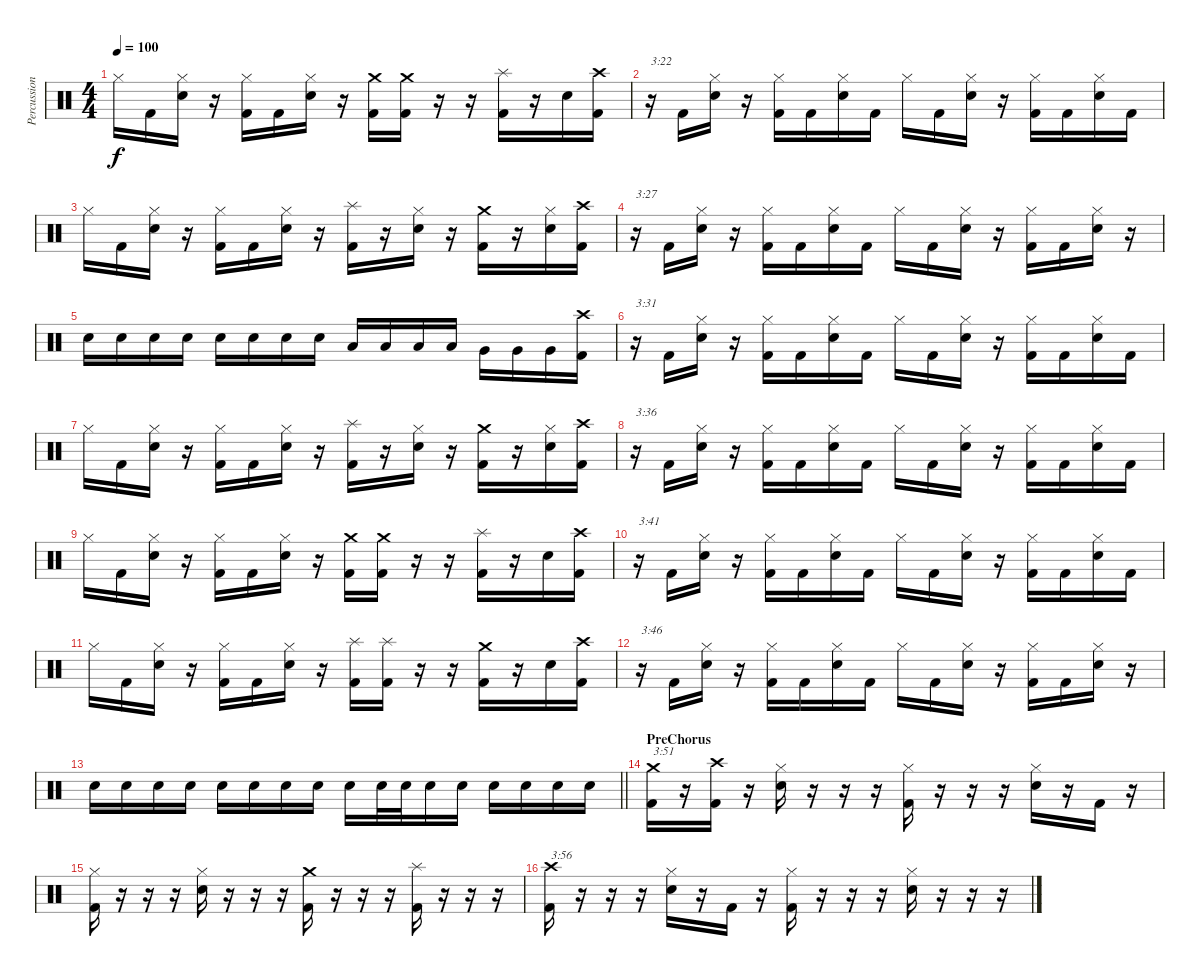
\track ("Percussion" "Percussion") {instrument percussion}
\staff {score}
\articulation defaults
\ts (4 4)
\tempo 100
\clef neutral
\ks c "Hi-Hat (closed)".16{dy f} "Kick (hit) 2".16
("Hi-Hat (closed)" "Electric Snare (hit)").16 r.16 ("Hi-Hat (closed)" "Kick (hit) 2").16 "Kick (hit) 2".16 ("Hi-Hat (closed)" "Electric Snare (hit)").16 r.16 ("Crash medium (hit)" "Kick (hit) 2").16 ("Crash medium (hit)" "Kick (hit) 2").16 r.16 r.16{volume 0} ("Splash (hit)" "Kick (hit) 2").16{volume 11} r.16 "Electric Snare (hit)".16 ("Crash high (hit)" "Kick (hit) 2").16 |
r.16{txt "3:22"} "Kick (hit) 2".16 ("Hi-Hat (closed)" "Electric Snare (hit)").16 r.16 ("Hi-Hat (closed)" "Kick (hit) 2").16 "Kick (hit) 2".16 ("Hi-Hat (closed)" "Electric Snare (hit)").16 "Kick (hit) 2".16 "Hi-Hat (closed)".16 "Kick (hit) 2".16 ("Hi-Hat (closed)" "Electric Snare (hit)").16 r.16 ("Hi-Hat (closed)" "Kick (hit) 2").16 "Kick (hit) 2".16 ("Hi-Hat (closed)" "Electric Snare (hit)").16 "Kick (hit) 2".16 |
"Hi-Hat (closed)".16 "Kick (hit) 2".16 ("Hi-Hat (closed)" "Electric Snare (hit)").16 r.16 ("Hi-Hat (closed)" "Kick (hit) 2").16 "Kick (hit) 2".16 ("Hi-Hat (closed)" "Electric Snare (hit)").16 r.16 ("Splash (hit)" "Kick (hit) 2").16 r.16 ("Hi-Hat (closed)" "Electric Snare (hit)").16 r.16 ("Crash medium (hit)" "Kick (hit) 2").16 r.16 ("Hi-Hat (closed)" "Electric Snare (hit)").16 ("Crash high (hit)" "Kick (hit) 2").16 |
r.16{txt "3:27"} "Kick (hit) 2".16 ("Hi-Hat (closed)" "Electric Snare (hit)").16 r.16 ("Hi-Hat (closed)" "Kick (hit) 2").16 "Kick (hit) 2".16 ("Hi-Hat (closed)" "Electric Snare (hit)").16 "Kick (hit) 2".16 "Hi-Hat (closed)".16 "Kick (hit) 2".16 ("Hi-Hat (closed)" "Electric Snare (hit)").16 r.16 ("Hi-Hat (closed)" "Kick (hit) 2").16 "Kick (hit) 2".16 ("Hi-Hat (closed)" "Electric Snare (hit)").16 r.16 |
"Electric Snare (hit)".16 "Electric Snare (hit)".16 "Electric Snare (hit)".16 "Electric Snare (hit)".16 "Electric Snare (hit)".16 "Electric Snare (hit)".16 "Electric Snare (hit)".16 "Electric Snare (hit)".16 "Low Tom (hit)".16 "Low Tom (hit)".16 "Low Tom (hit)".16 "Low Tom (hit)".16 "Very Low Tom (hit)".16 "Very Low Tom (hit)".16 "Very Low Tom (hit)".16 ("Crash high (hit)" "Kick (hit) 2").16 |
r.16{txt "3:31"} "Kick (hit) 2".16 ("Hi-Hat (closed)" "Electric Snare (hit)").16 r.16 ("Hi-Hat (closed)" "Kick (hit) 2").16 "Kick (hit) 2".16 ("Hi-Hat (closed)" "Electric Snare (hit)").16 "Kick (hit) 2".16 "Hi-Hat (closed)".16 "Kick (hit) 2".16 ("Hi-Hat (closed)" "Electric Snare (hit)").16 r.16 ("Hi-Hat (closed)" "Kick (hit) 2").16 "Kick (hit) 2".16 ("Hi-Hat (closed)" "Electric Snare (hit)").16 "Kick (hit) 2".16 |
"Hi-Hat (closed)".16 "Kick (hit) 2".16 ("Hi-Hat (closed)" "Electric Snare (hit)").16 r.16 ("Hi-Hat (closed)" "Kick (hit) 2").16 "Kick (hit) 2".16 ("Hi-Hat (closed)" "Electric Snare (hit)").16 r.16 ("Splash (hit)" "Kick (hit) 2").16 r.16 ("Hi-Hat (closed)" "Electric Snare (hit)").16 r.16 ("Crash medium (hit)" "Kick (hit) 2").16 r.16 ("Hi-Hat (closed)" "Electric Snare (hit)").16 ("Crash high (hit)" "Kick (hit) 2").16 |
r.16{txt "3:36"} "Kick (hit) 2".16 ("Hi-Hat (closed)" "Electric Snare (hit)").16 r.16 ("Hi-Hat (closed)" "Kick (hit) 2").16 "Kick (hit) 2".16 ("Hi-Hat (closed)" "Electric Snare (hit)").16 "Kick (hit) 2".16 "Hi-Hat (closed)".16 "Kick (hit) 2".16 ("Hi-Hat (closed)" "Electric Snare (hit)").16 r.16 ("Hi-Hat (closed)" "Kick (hit) 2").16 "Kick (hit) 2".16 ("Hi-Hat (closed)" "Electric Snare (hit)").16 "Kick (hit) 2".16 |
"Hi-Hat (closed)".16 "Kick (hit) 2".16 ("Hi-Hat (closed)" "Electric Snare (hit)").16 r.16 ("Hi-Hat (closed)" "Kick (hit) 2").16 "Kick (hit) 2".16 ("Hi-Hat (closed)" "Electric Snare (hit)").16 r.16 ("Crash medium (hit)" "Kick (hit) 2").16 ("Crash medium (hit)" "Kick (hit) 2").16 r.16 r.16{volume 0} ("Splash (hit)" "Kick (hit) 2").16{volume 11} r.16 "Electric Snare (hit)".16 ("Crash high (hit)" "Kick (hit) 2").16 |
r.16{txt "3:41"} "Kick (hit) 2".16 ("Hi-Hat (closed)" "Electric Snare (hit)").16 r.16 ("Hi-Hat (closed)" "Kick (hit) 2").16 "Kick (hit) 2".16 ("Hi-Hat (closed)" "Electric Snare (hit)").16 "Kick (hit) 2".16 "Hi-Hat (closed)".16 "Kick (hit) 2".16 ("Hi-Hat (closed)" "Electric Snare (hit)").16 r.16 ("Hi-Hat (closed)" "Kick (hit) 2").16 "Kick (hit) 2".16 ("Hi-Hat (closed)" "Electric Snare (hit)").16 "Kick (hit) 2".16 |
"Hi-Hat (closed)".16 "Kick (hit) 2".16 ("Hi-Hat (closed)" "Electric Snare (hit)").16 r.16 ("Hi-Hat (closed)" "Kick (hit) 2").16 "Kick (hit) 2".16 ("Hi-Hat (closed)" "Electric Snare (hit)").16 r.16 ("Splash (hit)" "Kick (hit) 2").16 ("Splash (hit)" "Kick (hit) 2").16 r.16 r.16{volume 0} ("Crash medium (hit)" "Kick (hit) 2").16{volume 11} r.16 "Electric Snare (hit)".16 ("Crash high (hit)" "Kick (hit) 2").16 |
r.16{txt "3:46"} "Kick (hit) 2".16 ("Hi-Hat (closed)" "Electric Snare (hit)").16 r.16 ("Hi-Hat (closed)" "Kick (hit) 2").16 "Kick (hit) 2".16 ("Hi-Hat (closed)" "Electric Snare (hit)").16 "Kick (hit) 2".16 "Hi-Hat (closed)".16 "Kick (hit) 2".16 ("Hi-Hat (closed)" "Electric Snare (hit)").16 r.16 ("Hi-Hat (closed)" "Kick (hit) 2").16 "Kick (hit) 2".16 ("Hi-Hat (closed)" "Electric Snare (hit)").16 r.16 |
\barLineRight lightlight "Electric Snare (hit)".16 "Electric Snare (hit)".16 "Electric Snare (hit)".16 "Electric Snare (hit)".16 "Electric Snare (hit)".16 "Electric Snare (hit)".16 "Electric Snare (hit)".16 "Electric Snare (hit)".16 "Electric Snare (hit)".16 "Electric Snare (hit)".32 "Electric Snare (hit)".32 "Electric Snare (hit)".16 "Electric Snare (hit)".16 "Electric Snare (hit)".16 "Electric Snare (hit)".16 "Electric Snare (hit)".16 "Electric Snare (hit)".16
|
\section ("" "PreChorus")
("Crash medium (hit)" "Kick (hit) 2").16{txt "3:51"} r.16 ("Crash high (hit)" "Kick (hit) 2").16 r.16 ("Hi-Hat (closed)" "Electric Snare (hit)").16 r.16 r.16 r.16 ("Hi-Hat (closed)" "Kick (hit) 2").16 r.16 r.16 r.16 ("Hi-Hat (closed)" "Electric Snare (hit)").16 r.16 "Kick (hit) 2".16 r.16 |
("Hi-Hat (closed)" "Kick (hit) 2").16 r.16 r.16 r.16 ("Hi-Hat (closed)" "Electric Snare (hit)").16 r.16 r.16 r.16 ("Crash medium (hit)" "Kick (hit) 2").16 r.16 r.16 r.16 ("Splash (hit)" "Kick (hit) 2").16 r.16 r.16 r.16 |
("Crash high (hit)" "Kick (hit) 2").16{txt "3:56"} r.16 r.16 r.16 ("Hi-Hat (closed)" "Electric Snare (hit)").16 r.16 "Kick (hit) 2".16 r.16 ("Hi-Hat (closed)" "Kick (hit) 2").16 r.16 r.16 r.16 ("Hi-Hat (closed)" "Electric Snare (hit)").16 r.16 r.16 r.16
